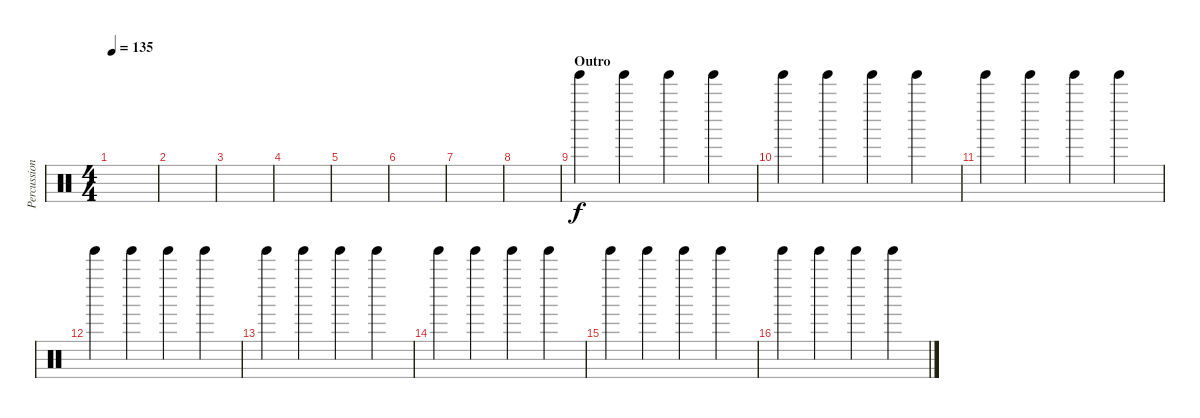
\track ("Percussion" "Percussion") {instrument percussion}
\staff {score}
\articulation defaults
\ts (4 4)
\tempo 135
\clef neutral
\ks c
|
|
|
|
|
|
|
|
\section ("" "Outro")
"Tinkle Bell (hit)".4 "Tinkle Bell (hit)".4 "Tinkle Bell (hit)".4 "Tinkle Bell (hit)".4 |
"Tinkle Bell (hit)".4 "Tinkle Bell (hit)".4 "Tinkle Bell (hit)".4 "Tinkle Bell (hit)".4 |
"Tinkle Bell (hit)".4 "Tinkle Bell (hit)".4 "Tinkle Bell (hit)".4 "Tinkle Bell (hit)".4 |
"Tinkle Bell (hit)".4 "Tinkle Bell (hit)".4 "Tinkle Bell (hit)".4 "Tinkle Bell (hit)".4 |
"Tinkle Bell (hit)".4 "Tinkle Bell (hit)".4 "Tinkle Bell (hit)".4 "Tinkle Bell (hit)".4 |
"Tinkle Bell (hit)".4 "Tinkle Bell (hit)".4 "Tinkle Bell (hit)".4 "Tinkle Bell (hit)".4 |
"Tinkle Bell (hit)".4 "Tinkle Bell (hit)".4 "Tinkle Bell (hit)".4 "Tinkle Bell (hit)".4 |
"Tinkle Bell (hit)".4 "Tinkle Bell (hit)".4 "Tinkle Bell (hit)".4 "Tinkle Bell (hit)".4
